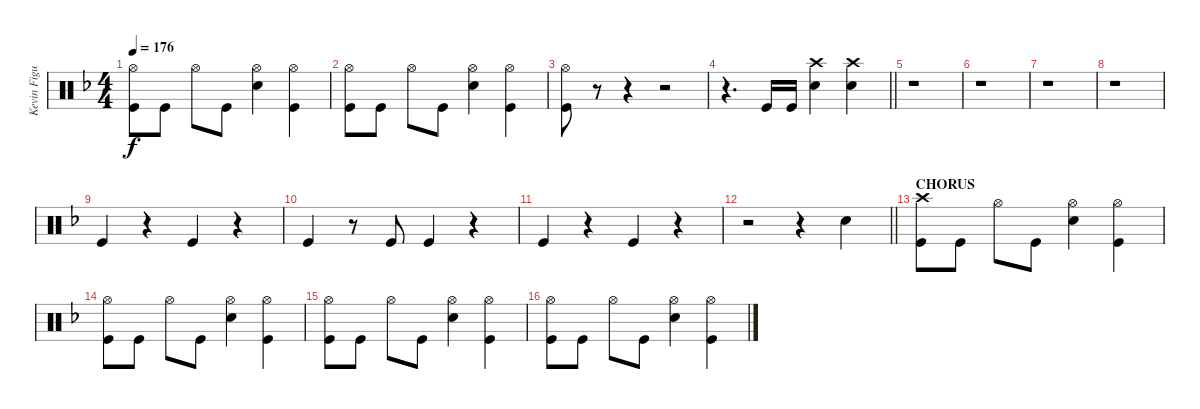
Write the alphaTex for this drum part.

\track ("Kevin Figueiredo - Drums" "Kevin Figu") {instrument percussion}
\staff {score}
\articulation defaults
\ts (4 4)
\tempo 176
\clef neutral
\ks f
("Hi-Hat (open)" "Kick (hit)").8{dy f} "Kick (hit)".8 "Hi-Hat (open)".8 "Kick (hit)".8 ("Hi-Hat (open)" "Snare (hit) 2").4 ("Hi-Hat (open)" "Kick (hit)").4 |
("Hi-Hat (open)" "Kick (hit)").8 "Kick (hit)".8 "Hi-Hat (open)".8 "Kick (hit)".8 ("Hi-Hat (open)" "Snare (hit) 2").4 ("Hi-Hat (open)" "Kick (hit)").4 |
("Hi-Hat (open)" "Kick (hit)").8 r.8 r.4 r.2 |
\barLineRight lightlight
r.4{d} "Kick (hit)".16 "Kick (hit)".16 ("Crash high (hit)" "Snare (hit) 2").4 ("Crash high (hit)" "Snare (hit) 2").4 |
r.1 |
r.1 |
r.1 |
r.1 |
"Kick (hit)".4 r.4 "Kick (hit)".4 r.4 |
"Kick (hit)".4 r.8 "Kick (hit)".8 "Kick (hit)".4 r.4 |
"Kick (hit)".4 r.4 "Kick (hit)".4 r.4 |
\barLineRight lightlight
r.2 r.4 "Snare (hit) 2".4 |
\section ("" "CHORUS")
("Crash high (hit)" "Kick (hit)").8 "Kick (hit)".8 "Hi-Hat (open)".8 "Kick (hit)".8 ("Hi-Hat (open)" "Snare (hit) 2").4 ("Hi-Hat (open)" "Kick (hit)").4 |
("Hi-Hat (open)" "Kick (hit)").8 "Kick (hit)".8 "Hi-Hat (open)".8 "Kick (hit)".8 ("Hi-Hat (open)" "Snare (hit) 2").4 ("Hi-Hat (open)" "Kick (hit)").4 |
("Hi-Hat (open)" "Kick (hit)").8 "Kick (hit)".8 "Hi-Hat (open)".8 "Kick (hit)".8 ("Hi-Hat (open)" "Snare (hit) 2").4 ("Hi-Hat (open)" "Kick (hit)").4 |
("Hi-Hat (open)" "Kick (hit)").8 "Kick (hit)".8 "Hi-Hat (open)".8 "Kick (hit)".8 ("Hi-Hat (open)" "Snare (hit) 2").4 ("Hi-Hat (open)" "Kick (hit)").4
